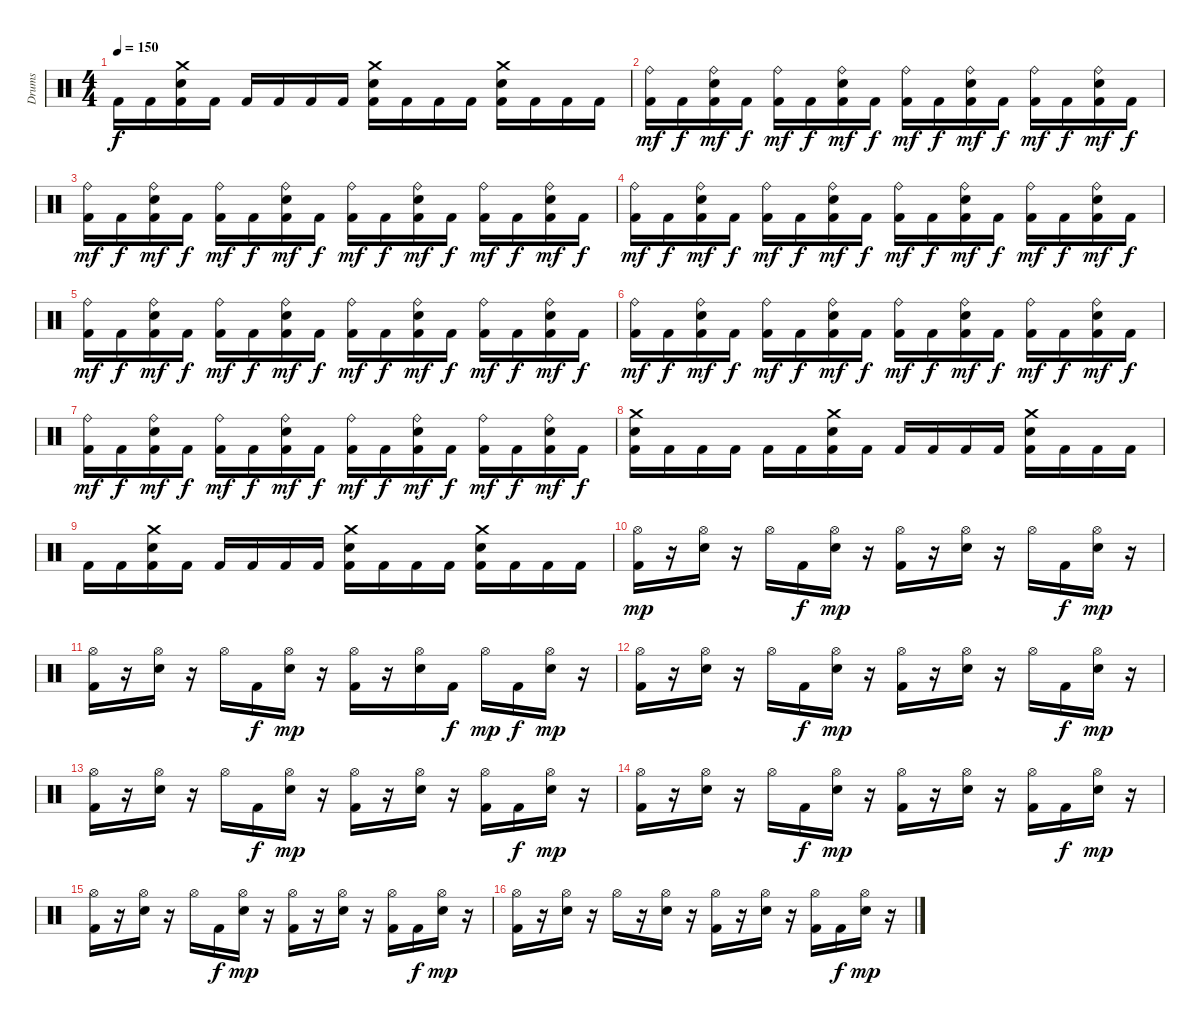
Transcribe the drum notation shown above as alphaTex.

\track ("Drums" "Drums") {instrument percussion}
\staff {score}
\articulation defaults
\ts (4 4)
\tempo 150
\clef neutral
\ks c "Kick (hit) 2".16{dy f} "Kick (hit) 2".16
("Kick (hit) 2" "Snare (hit) 2" "Crash medium (hit)").16 "Kick (hit) 2".16 "Kick (hit) 2".16 "Kick (hit) 2".16 "Kick (hit) 2".16 "Kick (hit) 2".16 ("Kick (hit) 2" "Snare (hit) 2" "Crash medium (hit)").16 "Kick (hit) 2".16 "Kick (hit) 2".16 "Kick (hit) 2".16 ("Kick (hit) 2" "Snare (hit) 2" "Crash medium (hit)").16 "Kick (hit) 2".16 "Kick (hit) 2".16 "Kick (hit) 2".16 |
("Kick (hit) 2" "Ride (bell)").16{dy mf} "Kick (hit) 2".16{dy f} ("Kick (hit) 2" "Snare (hit) 2" "Ride (bell)").16{dy mf} "Kick (hit) 2".16{dy f} ("Kick (hit) 2" "Ride (bell)").16{dy mf} "Kick (hit) 2".16{dy f} ("Kick (hit) 2" "Snare (hit) 2" "Ride (bell)").16{dy mf} "Kick (hit) 2".16{dy f} ("Kick (hit) 2" "Ride (bell)").16{dy mf} "Kick (hit) 2".16{dy f} ("Kick (hit) 2" "Snare (hit) 2" "Ride (bell)").16{dy mf} "Kick (hit) 2".16{dy f} ("Kick (hit) 2" "Ride (bell)").16{dy mf} "Kick (hit) 2".16{dy f} ("Kick (hit) 2" "Snare (hit) 2" "Ride (bell)").16{dy mf} "Kick (hit) 2".16{dy f} |
("Kick (hit) 2" "Ride (bell)").16{dy mf} "Kick (hit) 2".16{dy f} ("Kick (hit) 2" "Snare (hit) 2" "Ride (bell)").16{dy mf} "Kick (hit) 2".16{dy f} ("Kick (hit) 2" "Ride (bell)").16{dy mf} "Kick (hit) 2".16{dy f} ("Kick (hit) 2" "Snare (hit) 2" "Ride (bell)").16{dy mf} "Kick (hit) 2".16{dy f} ("Kick (hit) 2" "Ride (bell)").16{dy mf} "Kick (hit) 2".16{dy f} ("Kick (hit) 2" "Snare (hit) 2" "Ride (bell)").16{dy mf} "Kick (hit) 2".16{dy f} ("Kick (hit) 2" "Ride (bell)").16{dy mf} "Kick (hit) 2".16{dy f} ("Kick (hit) 2" "Snare (hit) 2" "Ride (bell)").16{dy mf} "Kick (hit) 2".16{dy f} |
("Kick (hit) 2" "Ride (bell)").16{dy mf} "Kick (hit) 2".16{dy f} ("Kick (hit) 2" "Snare (hit) 2" "Ride (bell)").16{dy mf} "Kick (hit) 2".16{dy f} ("Kick (hit) 2" "Ride (bell)").16{dy mf} "Kick (hit) 2".16{dy f} ("Kick (hit) 2" "Snare (hit) 2" "Ride (bell)").16{dy mf} "Kick (hit) 2".16{dy f} ("Kick (hit) 2" "Ride (bell)").16{dy mf} "Kick (hit) 2".16{dy f} ("Kick (hit) 2" "Snare (hit) 2" "Ride (bell)").16{dy mf} "Kick (hit) 2".16{dy f} ("Kick (hit) 2" "Ride (bell)").16{dy mf} "Kick (hit) 2".16{dy f} ("Kick (hit) 2" "Snare (hit) 2" "Ride (bell)").16{dy mf} "Kick (hit) 2".16{dy f} |
("Kick (hit) 2" "Ride (bell)").16{dy mf} "Kick (hit) 2".16{dy f} ("Kick (hit) 2" "Snare (hit) 2" "Ride (bell)").16{dy mf} "Kick (hit) 2".16{dy f} ("Kick (hit) 2" "Ride (bell)").16{dy mf} "Kick (hit) 2".16{dy f} ("Kick (hit) 2" "Snare (hit) 2" "Ride (bell)").16{dy mf} "Kick (hit) 2".16{dy f} ("Kick (hit) 2" "Ride (bell)").16{dy mf} "Kick (hit) 2".16{dy f} ("Kick (hit) 2" "Snare (hit) 2" "Ride (bell)").16{dy mf} "Kick (hit) 2".16{dy f} ("Kick (hit) 2" "Ride (bell)").16{dy mf} "Kick (hit) 2".16{dy f} ("Kick (hit) 2" "Snare (hit) 2" "Ride (bell)").16{dy mf} "Kick (hit) 2".16{dy f} |
("Kick (hit) 2" "Ride (bell)").16{dy mf} "Kick (hit) 2".16{dy f} ("Kick (hit) 2" "Snare (hit) 2" "Ride (bell)").16{dy mf} "Kick (hit) 2".16{dy f} ("Kick (hit) 2" "Ride (bell)").16{dy mf} "Kick (hit) 2".16{dy f} ("Kick (hit) 2" "Snare (hit) 2" "Ride (bell)").16{dy mf} "Kick (hit) 2".16{dy f} ("Kick (hit) 2" "Ride (bell)").16{dy mf} "Kick (hit) 2".16{dy f} ("Kick (hit) 2" "Snare (hit) 2" "Ride (bell)").16{dy mf} "Kick (hit) 2".16{dy f} ("Kick (hit) 2" "Ride (bell)").16{dy mf} "Kick (hit) 2".16{dy f} ("Kick (hit) 2" "Snare (hit) 2" "Ride (bell)").16{dy mf} "Kick (hit) 2".16{dy f} |
("Kick (hit) 2" "Ride (bell)").16{dy mf} "Kick (hit) 2".16{dy f} ("Kick (hit) 2" "Snare (hit) 2" "Ride (bell)").16{dy mf} "Kick (hit) 2".16{dy f} ("Kick (hit) 2" "Ride (bell)").16{dy mf} "Kick (hit) 2".16{dy f} ("Kick (hit) 2" "Snare (hit) 2" "Ride (bell)").16{dy mf} "Kick (hit) 2".16{dy f} ("Kick (hit) 2" "Ride (bell)").16{dy mf} "Kick (hit) 2".16{dy f} ("Kick (hit) 2" "Snare (hit) 2" "Ride (bell)").16{dy mf} "Kick (hit) 2".16{dy f} ("Kick (hit) 2" "Ride (bell)").16{dy mf} "Kick (hit) 2".16{dy f} ("Kick (hit) 2" "Snare (hit) 2" "Ride (bell)").16{dy mf} "Kick (hit) 2".16{dy f} |
("Kick (hit) 2" "Snare (hit) 2" "Crash medium (hit)").16 "Kick (hit) 2".16 "Kick (hit) 2".16 "Kick (hit) 2".16 "Kick (hit) 2".16 "Kick (hit) 2".16 ("Kick (hit) 2" "Snare (hit) 2" "Crash medium (hit)").16 "Kick (hit) 2".16 "Kick (hit) 2".16 "Kick (hit) 2".16 "Kick (hit) 2".16 "Kick (hit) 2".16 ("Kick (hit) 2" "Snare (hit) 2" "Crash medium (hit)").16 "Kick (hit) 2".16 "Kick (hit) 2".16 "Kick (hit) 2".16 |
"Kick (hit) 2".16 "Kick (hit) 2".16 ("Kick (hit) 2" "Snare (hit) 2" "Crash medium (hit)").16 "Kick (hit) 2".16 "Kick (hit) 2".16 "Kick (hit) 2".16 "Kick (hit) 2".16 "Kick (hit) 2".16 ("Kick (hit) 2" "Snare (hit) 2" "Crash medium (hit)").16 "Kick (hit) 2".16 "Kick (hit) 2".16 "Kick (hit) 2".16 ("Kick (hit) 2" "Snare (hit) 2" "Crash medium (hit)").16 "Kick (hit) 2".16 "Kick (hit) 2".16 "Kick (hit) 2".16 |
("Kick (hit) 2" "Hi-Hat (open)").16{dy mp} r.16 ("Electric Snare (hit)" "Hi-Hat (open)").16 r.16 "Hi-Hat (open)".16 "Kick (hit) 2".16{dy f} ("Electric Snare (hit)" "Hi-Hat (open)").16{dy mp} r.16 ("Kick (hit) 2" "Hi-Hat (open)").16 r.16 ("Electric Snare (hit)" "Hi-Hat (open)").16 r.16 "Hi-Hat (open)".16 "Kick (hit) 2".16{dy f} ("Electric Snare (hit)" "Hi-Hat (open)").16{dy mp} r.16 |
("Kick (hit) 2" "Hi-Hat (open)").16 r.16 ("Electric Snare (hit)" "Hi-Hat (open)").16 r.16 "Hi-Hat (open)".16 "Kick (hit) 2".16{dy f} ("Electric Snare (hit)" "Hi-Hat (open)").16{dy mp} r.16 ("Kick (hit) 2" "Hi-Hat (open)").16 r.16 ("Electric Snare (hit)" "Hi-Hat (open)").16 "Kick (hit) 2".16{dy f} "Hi-Hat (open)".16{dy mp} "Kick (hit) 2".16{dy f} ("Electric Snare (hit)" "Hi-Hat (open)").16{dy mp} r.16 |
("Kick (hit) 2" "Hi-Hat (open)").16 r.16 ("Electric Snare (hit)" "Hi-Hat (open)").16 r.16 "Hi-Hat (open)".16 "Kick (hit) 2".16{dy f} ("Electric Snare (hit)" "Hi-Hat (open)").16{dy mp} r.16 ("Kick (hit) 2" "Hi-Hat (open)").16 r.16 ("Electric Snare (hit)" "Hi-Hat (open)").16 r.16 "Hi-Hat (open)".16 "Kick (hit) 2".16{dy f} ("Electric Snare (hit)" "Hi-Hat (open)").16{dy mp} r.16 |
("Kick (hit) 2" "Hi-Hat (open)").16 r.16 ("Electric Snare (hit)" "Hi-Hat (open)").16 r.16 "Hi-Hat (open)".16 "Kick (hit) 2".16{dy f} ("Electric Snare (hit)" "Hi-Hat (open)").16{dy mp} r.16 ("Kick (hit) 2" "Hi-Hat (open)").16 r.16 ("Electric Snare (hit)" "Hi-Hat (open)").16 r.16 ("Kick (hit) 2" "Hi-Hat (open)").16 "Kick (hit) 2".16{dy f} ("Electric Snare (hit)" "Hi-Hat (open)").16{dy mp} r.16 |
("Kick (hit) 2" "Hi-Hat (open)").16 r.16 ("Electric Snare (hit)" "Hi-Hat (open)").16 r.16 "Hi-Hat (open)".16 "Kick (hit) 2".16{dy f} ("Electric Snare (hit)" "Hi-Hat (open)").16{dy mp} r.16 ("Kick (hit) 2" "Hi-Hat (open)").16 r.16 ("Electric Snare (hit)" "Hi-Hat (open)").16 r.16 ("Kick (hit) 2" "Hi-Hat (open)").16 "Kick (hit) 2".16{dy f} ("Electric Snare (hit)" "Hi-Hat (open)").16{dy mp} r.16 |
("Kick (hit) 2" "Hi-Hat (open)").16 r.16 ("Electric Snare (hit)" "Hi-Hat (open)").16 r.16 "Hi-Hat (open)".16 "Kick (hit) 2".16{dy f} ("Electric Snare (hit)" "Hi-Hat (open)").16{dy mp} r.16 ("Kick (hit) 2" "Hi-Hat (open)").16 r.16 ("Electric Snare (hit)" "Hi-Hat (open)").16 r.16 ("Kick (hit) 2" "Hi-Hat (open)").16 "Kick (hit) 2".16{dy f} ("Electric Snare (hit)" "Hi-Hat (open)").16{dy mp} r.16 |
("Kick (hit) 2" "Hi-Hat (open)").16 r.16 ("Electric Snare (hit)" "Hi-Hat (open)").16 r.16 "Hi-Hat (open)".16 r.16 ("Electric Snare (hit)" "Hi-Hat (open)").16 r.16 ("Kick (hit) 2" "Hi-Hat (open)").16 r.16 ("Electric Snare (hit)" "Hi-Hat (open)").16 r.16 ("Kick (hit) 2" "Hi-Hat (open)").16 "Kick (hit) 2".16{dy f} ("Electric Snare (hit)" "Hi-Hat (open)").16{dy mp} r.16
